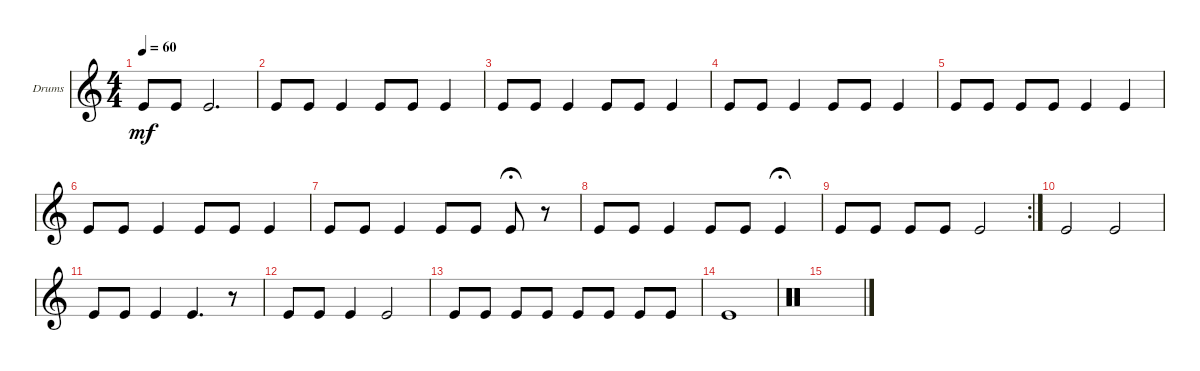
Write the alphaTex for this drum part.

\defaultSystemsLayout 4
\bracketExtendMode groupsimilarinstruments
\firstSystemTrackNameOrientation horizontal
\otherSystemsTrackNameOrientation horizontal
\track ("Drumkit" "Drums") {mute instrument percussion}
\staff {score}
\articulation defaults
\ts (4 4)
\tempo 60
\clef g2
\scale
0.483871
\ks c "Kick (hit)".8{dy mf} "Kick (hit)".8 "Kick (hit)".2{d}
|
\scale
0.258065 "Kick (hit)".8 "Kick (hit)".8 "Kick (hit)".4 "Kick (hit)".8 "Kick (hit)".8 "Kick (hit)".4 |
\scale
0.333333 "Kick (hit)".8 "Kick (hit)".8 "Kick (hit)".4 "Kick (hit)".8 "Kick (hit)".8 "Kick (hit)".4 |
\scale
0.333333 "Kick (hit)".8 "Kick (hit)".8 "Kick (hit)".4 "Kick (hit)".8 "Kick (hit)".8 "Kick (hit)".4 |
\scale
0.333333 "Kick (hit)".8 "Kick (hit)".8 "Kick (hit)".8 "Kick (hit)".8 "Kick (hit)".4 "Kick (hit)".4 |
\scale
0.333333 "Kick (hit)".8 "Kick (hit)".8 "Kick (hit)".4 "Kick (hit)".8 "Kick (hit)".8 "Kick (hit)".4 |
\scale
0.333333 "Kick (hit)".8 "Kick (hit)".8 "Kick (hit)".4 "Kick (hit)".8 "Kick (hit)".8 "Kick (hit)".8{fermata (medium 0.5)} r.8 |
\scale
0.333333 "Kick (hit)".8 "Kick (hit)".8 "Kick (hit)".4 "Kick (hit)".8 "Kick (hit)".8 "Kick (hit)".4{fermata (medium 0.5)} |
\rc 2
\scale
0.356322 "Kick (hit)".8 "Kick (hit)".8 "Kick (hit)".8 "Kick (hit)".8 "Kick (hit)".2 |
\scale
0.321839 "Kick (hit)".2 "Kick (hit)".2 |
\scale
0.321839 "Kick (hit)".8 "Kick (hit)".8 "Kick (hit)".4 "Kick (hit)".4{d} r.8 |
\scale
0.333333 "Kick (hit)".8 "Kick (hit)".8 "Kick (hit)".4 "Kick (hit)".2 |
\scale
0.333333 "Kick (hit)".8 "Kick (hit)".8 "Kick (hit)".8 "Kick (hit)".8 "Kick (hit)".8 "Kick (hit)".8 "Kick (hit)".8 "Kick (hit)".8 |
\scale
0.333333 "Kick (hit)".1 |
\clef neutral
